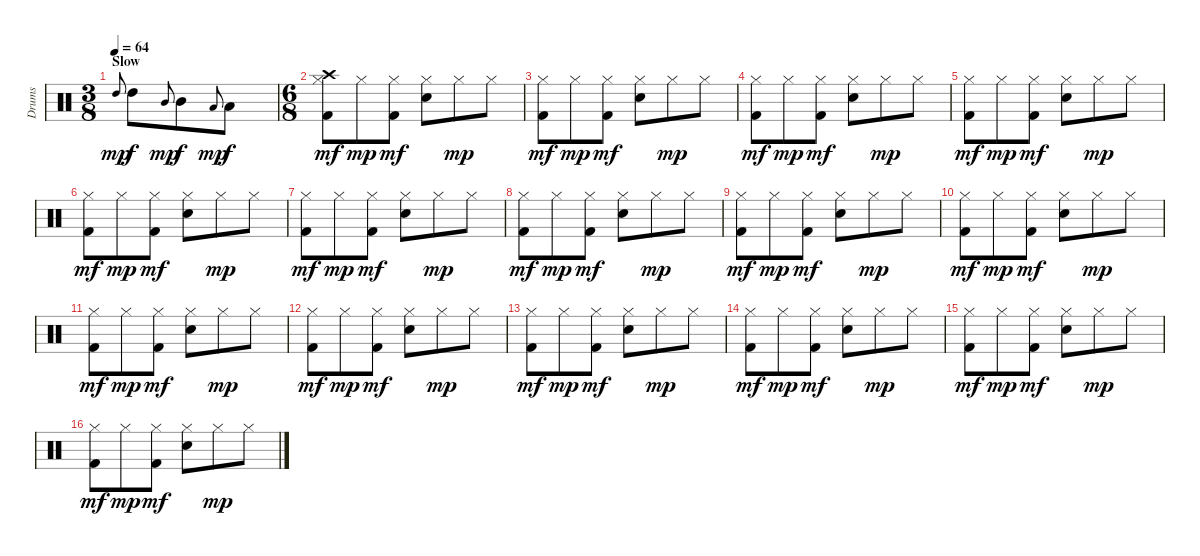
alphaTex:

\track ("Drums" "Drums") {instrument percussion}
\staff {score}
\articulation defaults
\ts (3 8)
\section ("" "Slow")
\tempo 64
\clef neutral
\ks c "High Tom (hit)".8{gr onbeat dy mp} "High Tom (hit)".8{dy f volume 8 balance 8} "Mid Tom (hit)".8{gr onbeat dy mp} "Mid Tom (hit)".8{dy f} "Low Tom (hit)".8{gr onbeat dy mp} "Low Tom (hit)".8{dy f}
|
\ts (6 8)
("Crash high (hit)" "Hi-Hat (closed)" "Kick (hit) 2").8{dy mf} "Hi-Hat (closed)".8{dy mp} ("Hi-Hat (closed)" "Kick (hit) 2").8{dy mf} ("Hi-Hat (closed)" "Snare (hit) 2").8 "Hi-Hat (closed)".8{dy mp} "Hi-Hat (closed)".8 |
("Hi-Hat (closed)" "Kick (hit) 2").8{dy mf} "Hi-Hat (closed)".8{dy mp} ("Hi-Hat (closed)" "Kick (hit) 2").8{dy mf} ("Hi-Hat (closed)" "Snare (hit) 2").8 "Hi-Hat (closed)".8{dy mp} "Hi-Hat (closed)".8 |
("Hi-Hat (closed)" "Kick (hit) 2").8{dy mf} "Hi-Hat (closed)".8{dy mp} ("Hi-Hat (closed)" "Kick (hit) 2").8{dy mf} ("Hi-Hat (closed)" "Snare (hit) 2").8 "Hi-Hat (closed)".8{dy mp} "Hi-Hat (closed)".8 |
("Hi-Hat (closed)" "Kick (hit) 2").8{dy mf} "Hi-Hat (closed)".8{dy mp} ("Hi-Hat (closed)" "Kick (hit) 2").8{dy mf} ("Hi-Hat (closed)" "Snare (hit) 2").8 "Hi-Hat (closed)".8{dy mp} "Hi-Hat (closed)".8 |
("Hi-Hat (closed)" "Kick (hit) 2").8{dy mf} "Hi-Hat (closed)".8{dy mp} ("Hi-Hat (closed)" "Kick (hit) 2").8{dy mf} ("Hi-Hat (closed)" "Snare (hit) 2").8 "Hi-Hat (closed)".8{dy mp} "Hi-Hat (closed)".8 |
("Hi-Hat (closed)" "Kick (hit) 2").8{dy mf} "Hi-Hat (closed)".8{dy mp} ("Hi-Hat (closed)" "Kick (hit) 2").8{dy mf} ("Hi-Hat (closed)" "Snare (hit) 2").8 "Hi-Hat (closed)".8{dy mp} "Hi-Hat (closed)".8 |
("Hi-Hat (closed)" "Kick (hit) 2").8{dy mf} "Hi-Hat (closed)".8{dy mp} ("Hi-Hat (closed)" "Kick (hit) 2").8{dy mf} ("Hi-Hat (closed)" "Snare (hit) 2").8 "Hi-Hat (closed)".8{dy mp} "Hi-Hat (closed)".8 |
("Hi-Hat (closed)" "Kick (hit) 2").8{dy mf} "Hi-Hat (closed)".8{dy mp} ("Hi-Hat (closed)" "Kick (hit) 2").8{dy mf} ("Hi-Hat (closed)" "Snare (hit) 2").8 "Hi-Hat (closed)".8{dy mp} "Hi-Hat (closed)".8 |
("Hi-Hat (closed)" "Kick (hit) 2").8{dy mf} "Hi-Hat (closed)".8{dy mp} ("Hi-Hat (closed)" "Kick (hit) 2").8{dy mf} ("Hi-Hat (closed)" "Snare (hit) 2").8 "Hi-Hat (closed)".8{dy mp} "Hi-Hat (closed)".8 |
("Hi-Hat (closed)" "Kick (hit) 2").8{dy mf} "Hi-Hat (closed)".8{dy mp} ("Hi-Hat (closed)" "Kick (hit) 2").8{dy mf} ("Hi-Hat (closed)" "Snare (hit) 2").8 "Hi-Hat (closed)".8{dy mp} "Hi-Hat (closed)".8 |
("Hi-Hat (closed)" "Kick (hit) 2").8{dy mf} "Hi-Hat (closed)".8{dy mp} ("Hi-Hat (closed)" "Kick (hit) 2").8{dy mf} ("Hi-Hat (closed)" "Snare (hit) 2").8 "Hi-Hat (closed)".8{dy mp} "Hi-Hat (closed)".8 |
("Hi-Hat (closed)" "Kick (hit) 2").8{dy mf} "Hi-Hat (closed)".8{dy mp} ("Hi-Hat (closed)" "Kick (hit) 2").8{dy mf} ("Hi-Hat (closed)" "Snare (hit) 2").8 "Hi-Hat (closed)".8{dy mp} "Hi-Hat (closed)".8 |
("Hi-Hat (closed)" "Kick (hit) 2").8{dy mf} "Hi-Hat (closed)".8{dy mp} ("Hi-Hat (closed)" "Kick (hit) 2").8{dy mf} ("Hi-Hat (closed)" "Snare (hit) 2").8 "Hi-Hat (closed)".8{dy mp} "Hi-Hat (closed)".8 |
("Hi-Hat (closed)" "Kick (hit) 2").8{dy mf} "Hi-Hat (closed)".8{dy mp} ("Hi-Hat (closed)" "Kick (hit) 2").8{dy mf} ("Hi-Hat (closed)" "Snare (hit) 2").8 "Hi-Hat (closed)".8{dy mp} "Hi-Hat (closed)".8 |
("Hi-Hat (closed)" "Kick (hit) 2").8{dy mf} "Hi-Hat (closed)".8{dy mp} ("Hi-Hat (closed)" "Kick (hit) 2").8{dy mf} ("Hi-Hat (closed)" "Snare (hit) 2").8 "Hi-Hat (closed)".8{dy mp} "Hi-Hat (closed)".8
